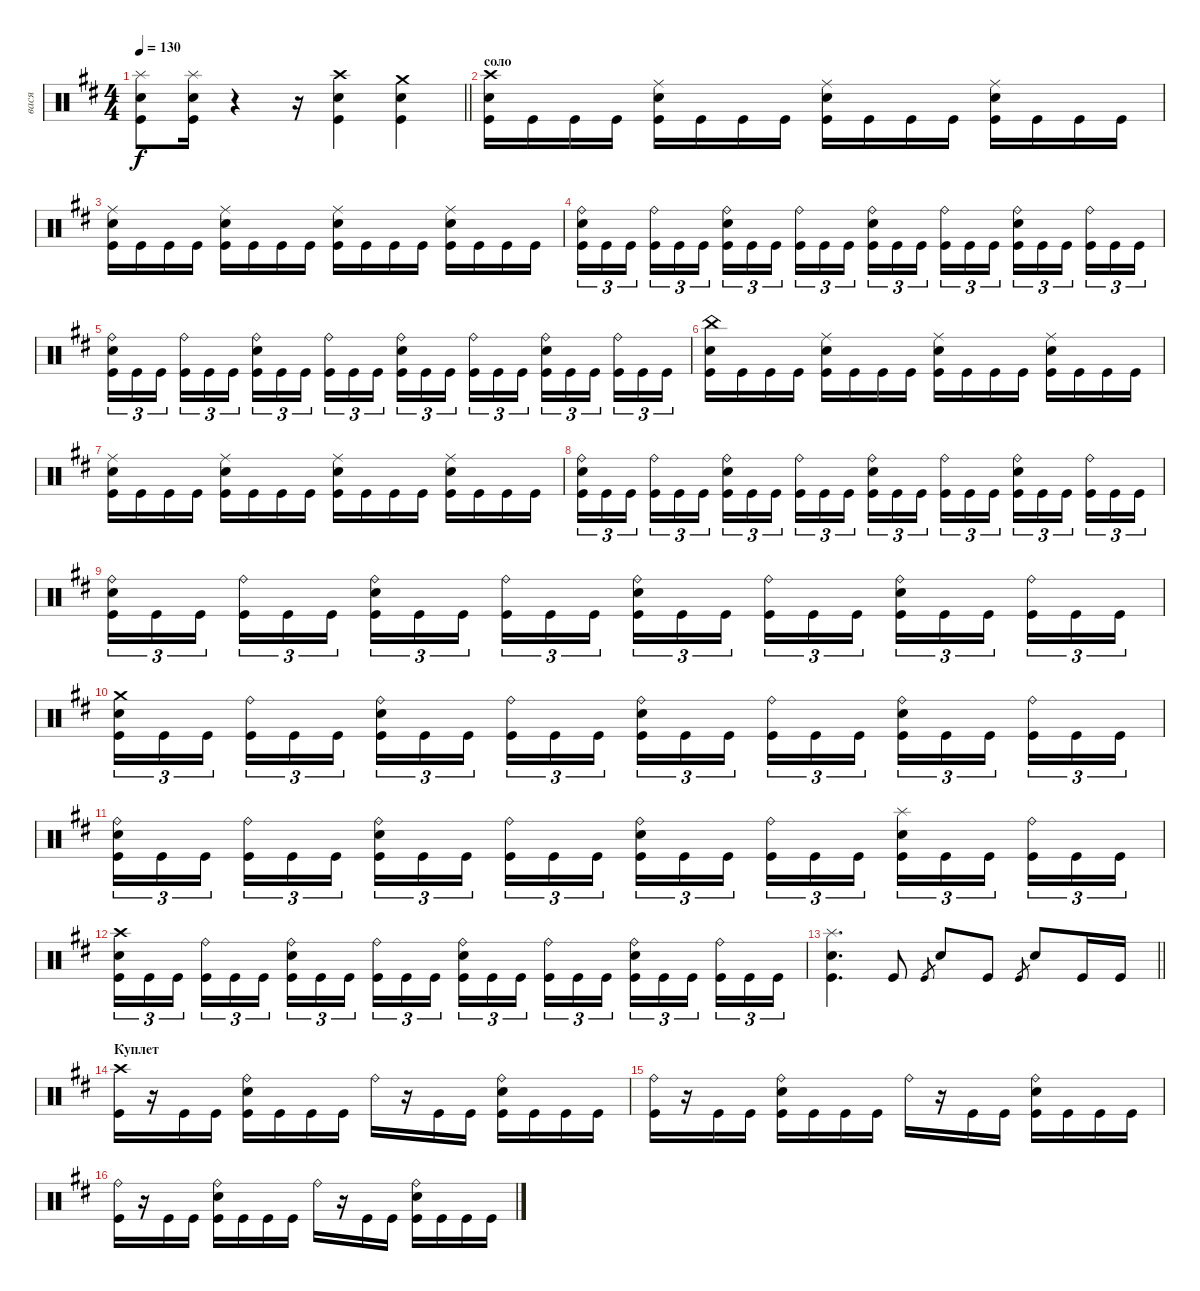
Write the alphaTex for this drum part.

\track ("вася" "вася") {instrument percussion}
\staff {score}
\articulation defaults
\ts (4 4)
\tempo 130
\clef neutral
\barLineRight lightlight
\ks bminor
("Splash (hit)" "Electric Snare (hit)" "Kick (hit)").8{dy f} ("Splash (hit)" "Electric Snare (hit)" "Kick (hit)").16 r.4 r.16 ("Crash high (hit)" "Electric Snare (hit)" "Kick (hit)").4 ("Crash medium (hit)" "Electric Snare (hit)" "Kick (hit)").4 |
\section ("" "соло")
("Crash high (hit)" "Electric Snare (hit)" "Kick (hit)").16 "Kick (hit)".16 "Kick (hit)".16 "Kick (hit)".16 ("Ride (middle)" "Electric Snare (hit)" "Kick (hit)").16 "Kick (hit)".16 "Kick (hit)".16 "Kick (hit)".16 ("Ride (middle)" "Electric Snare (hit)" "Kick (hit)").16 "Kick (hit)".16 "Kick (hit)".16 "Kick (hit)".16 ("Ride (middle)" "Electric Snare (hit)" "Kick (hit)").16 "Kick (hit)".16 "Kick (hit)".16 "Kick (hit)".16 |
("Ride (middle)" "Electric Snare (hit)" "Kick (hit)").16 "Kick (hit)".16 "Kick (hit)".16 "Kick (hit)".16 ("Ride (middle)" "Electric Snare (hit)" "Kick (hit)").16 "Kick (hit)".16 "Kick (hit)".16 "Kick (hit)".16 ("Ride (middle)" "Electric Snare (hit)" "Kick (hit)").16 "Kick (hit)".16 "Kick (hit)".16 "Kick (hit)".16 ("Ride (middle)" "Electric Snare (hit)" "Kick (hit)").16 "Kick (hit)".16 "Kick (hit)".16 "Kick (hit)".16 |
("Ride (bell)" "Electric Snare (hit)" "Kick (hit)").16{tu (3 2)} "Kick (hit)".16{tu (3 2)} "Kick (hit)".16{tu (3 2) beam splitsecondary} ("Ride (bell)" "Kick (hit)").16{tu (3 2)} "Kick (hit)".16{tu (3 2)} "Kick (hit)".16{tu (3 2)} ("Ride (bell)" "Electric Snare (hit)" "Kick (hit)").16{tu (3 2)} "Kick (hit)".16{tu (3 2)} "Kick (hit)".16{tu (3 2) beam splitsecondary} ("Ride (bell)" "Kick (hit)").16{tu (3 2)} "Kick (hit)".16{tu (3 2)} "Kick (hit)".16{tu (3 2)} ("Ride (bell)" "Electric Snare (hit)" "Kick (hit)").16{tu (3 2)} "Kick (hit)".16{tu (3 2)} "Kick (hit)".16{tu (3 2) beam splitsecondary} ("Ride (bell)" "Kick (hit)").16{tu (3 2)} "Kick (hit)".16{tu (3 2)} "Kick (hit)".16{tu (3 2)} ("Ride (bell)" "Electric Snare (hit)" "Kick (hit)").16{tu (3 2)} "Kick (hit)".16{tu (3 2)} "Kick (hit)".16{tu (3 2) beam splitsecondary} ("Ride (bell)" "Kick (hit)").16{tu (3 2)} "Kick (hit)".16{tu (3 2)} "Kick (hit)".16{tu (3 2)} |
("Ride (bell)" "Electric Snare (hit)" "Kick (hit)").16{tu (3 2)} "Kick (hit)".16{tu (3 2)} "Kick (hit)".16{tu (3 2) beam splitsecondary} ("Ride (bell)" "Kick (hit)").16{tu (3 2)} "Kick (hit)".16{tu (3 2)} "Kick (hit)".16{tu (3 2)} ("Ride (bell)" "Electric Snare (hit)" "Kick (hit)").16{tu (3 2)} "Kick (hit)".16{tu (3 2)} "Kick (hit)".16{tu (3 2) beam splitsecondary} ("Ride (bell)" "Kick (hit)").16{tu (3 2)} "Kick (hit)".16{tu (3 2)} "Kick (hit)".16{tu (3 2)} ("Ride (bell)" "Electric Snare (hit)" "Kick (hit)").16{tu (3 2)} "Kick (hit)".16{tu (3 2)} "Kick (hit)".16{tu (3 2) beam splitsecondary} ("Ride (bell)" "Kick (hit)").16{tu (3 2)} "Kick (hit)".16{tu (3 2)} "Kick (hit)".16{tu (3 2)} ("Ride (bell)" "Electric Snare (hit)" "Kick (hit)").16{tu (3 2)} "Kick (hit)".16{tu (3 2)} "Kick (hit)".16{tu (3 2) beam splitsecondary} ("Ride (bell)" "Kick (hit)").16{tu (3 2)} "Kick (hit)".16{tu (3 2)} "Kick (hit)".16{tu (3 2)} |
("China (hit)" "Electric Snare (hit)" "Kick (hit)").16 "Kick (hit)".16 "Kick (hit)".16 "Kick (hit)".16 ("Ride (middle)" "Electric Snare (hit)" "Kick (hit)").16 "Kick (hit)".16 "Kick (hit)".16 "Kick (hit)".16 ("Ride (middle)" "Electric Snare (hit)" "Kick (hit)").16 "Kick (hit)".16 "Kick (hit)".16 "Kick (hit)".16 ("Ride (middle)" "Electric Snare (hit)" "Kick (hit)").16 "Kick (hit)".16 "Kick (hit)".16 "Kick (hit)".16 |
("Ride (middle)" "Electric Snare (hit)" "Kick (hit)").16 "Kick (hit)".16 "Kick (hit)".16 "Kick (hit)".16 ("Ride (middle)" "Electric Snare (hit)" "Kick (hit)").16 "Kick (hit)".16 "Kick (hit)".16 "Kick (hit)".16 ("Ride (middle)" "Electric Snare (hit)" "Kick (hit)").16 "Kick (hit)".16 "Kick (hit)".16 "Kick (hit)".16 ("Ride (middle)" "Electric Snare (hit)" "Kick (hit)").16 "Kick (hit)".16 "Kick (hit)".16 "Kick (hit)".16 |
("Ride (bell)" "Electric Snare (hit)" "Kick (hit)").16{tu (3 2)} "Kick (hit)".16{tu (3 2)} "Kick (hit)".16{tu (3 2) beam splitsecondary} ("Ride (bell)" "Kick (hit)").16{tu (3 2)} "Kick (hit)".16{tu (3 2)} "Kick (hit)".16{tu (3 2)} ("Ride (bell)" "Electric Snare (hit)" "Kick (hit)").16{tu (3 2)} "Kick (hit)".16{tu (3 2)} "Kick (hit)".16{tu (3 2) beam splitsecondary} ("Ride (bell)" "Kick (hit)").16{tu (3 2)} "Kick (hit)".16{tu (3 2)} "Kick (hit)".16{tu (3 2)} ("Ride (bell)" "Electric Snare (hit)" "Kick (hit)").16{tu (3 2)} "Kick (hit)".16{tu (3 2)} "Kick (hit)".16{tu (3 2) beam splitsecondary} ("Ride (bell)" "Kick (hit)").16{tu (3 2)} "Kick (hit)".16{tu (3 2)} "Kick (hit)".16{tu (3 2)} ("Ride (bell)" "Electric Snare (hit)" "Kick (hit)").16{tu (3 2)} "Kick (hit)".16{tu (3 2)} "Kick (hit)".16{tu (3 2) beam splitsecondary} ("Ride (bell)" "Kick (hit)").16{tu (3 2)} "Kick (hit)".16{tu (3 2)} "Kick (hit)".16{tu (3 2)} |
("Ride (bell)" "Electric Snare (hit)" "Kick (hit)").16{tu (3 2)} "Kick (hit)".16{tu (3 2)} "Kick (hit)".16{tu (3 2) beam splitsecondary} ("Ride (bell)" "Kick (hit)").16{tu (3 2)} "Kick (hit)".16{tu (3 2)} "Kick (hit)".16{tu (3 2)} ("Ride (bell)" "Electric Snare (hit)" "Kick (hit)").16{tu (3 2)} "Kick (hit)".16{tu (3 2)} "Kick (hit)".16{tu (3 2) beam splitsecondary} ("Ride (bell)" "Kick (hit)").16{tu (3 2)} "Kick (hit)".16{tu (3 2)} "Kick (hit)".16{tu (3 2)} ("Ride (bell)" "Electric Snare (hit)" "Kick (hit)").16{tu (3 2)} "Kick (hit)".16{tu (3 2)} "Kick (hit)".16{tu (3 2) beam splitsecondary} ("Ride (bell)" "Kick (hit)").16{tu (3 2)} "Kick (hit)".16{tu (3 2)} "Kick (hit)".16{tu (3 2)} ("Ride (bell)" "Electric Snare (hit)" "Kick (hit)").16{tu (3 2)} "Kick (hit)".16{tu (3 2)} "Kick (hit)".16{tu (3 2) beam splitsecondary} ("Ride (bell)" "Kick (hit)").16{tu (3 2)} "Kick (hit)".16{tu (3 2)} "Kick (hit)".16{tu (3 2)} |
("Crash medium (hit)" "Electric Snare (hit)" "Kick (hit)").16{tu (3 2)} "Kick (hit)".16{tu (3 2)} "Kick (hit)".16{tu (3 2) beam splitsecondary} ("Ride (bell)" "Kick (hit)").16{tu (3 2)} "Kick (hit)".16{tu (3 2)} "Kick (hit)".16{tu (3 2)} ("Ride (bell)" "Electric Snare (hit)" "Kick (hit)").16{tu (3 2)} "Kick (hit)".16{tu (3 2)} "Kick (hit)".16{tu (3 2) beam splitsecondary} ("Ride (bell)" "Kick (hit)").16{tu (3 2)} "Kick (hit)".16{tu (3 2)} "Kick (hit)".16{tu (3 2)} ("Ride (bell)" "Electric Snare (hit)" "Kick (hit)").16{tu (3 2)} "Kick (hit)".16{tu (3 2)} "Kick (hit)".16{tu (3 2) beam splitsecondary} ("Ride (bell)" "Kick (hit)").16{tu (3 2)} "Kick (hit)".16{tu (3 2)} "Kick (hit)".16{tu (3 2)} ("Ride (bell)" "Electric Snare (hit)" "Kick (hit)").16{tu (3 2)} "Kick (hit)".16{tu (3 2)} "Kick (hit)".16{tu (3 2) beam splitsecondary} ("Ride (bell)" "Kick (hit)").16{tu (3 2)} "Kick (hit)".16{tu (3 2)} "Kick (hit)".16{tu (3 2)} |
("Ride (bell)" "Electric Snare (hit)" "Kick (hit)").16{tu (3 2)} "Kick (hit)".16{tu (3 2)} "Kick (hit)".16{tu (3 2) beam splitsecondary} ("Ride (bell)" "Kick (hit)").16{tu (3 2)} "Kick (hit)".16{tu (3 2)} "Kick (hit)".16{tu (3 2)} ("Ride (bell)" "Electric Snare (hit)" "Kick (hit)").16{tu (3 2)} "Kick (hit)".16{tu (3 2)} "Kick (hit)".16{tu (3 2) beam splitsecondary} ("Ride (bell)" "Kick (hit)").16{tu (3 2)} "Kick (hit)".16{tu (3 2)} "Kick (hit)".16{tu (3 2)} ("Ride (bell)" "Electric Snare (hit)" "Kick (hit)").16{tu (3 2)} "Kick (hit)".16{tu (3 2)} "Kick (hit)".16{tu (3 2) beam splitsecondary} ("Ride (bell)" "Kick (hit)").16{tu (3 2)} "Kick (hit)".16{tu (3 2)} "Kick (hit)".16{tu (3 2)} ("Splash (hit)" "Electric Snare (hit)" "Kick (hit)").16{tu (3 2)} "Kick (hit)".16{tu (3 2)} "Kick (hit)".16{tu (3 2) beam splitsecondary} ("Ride (bell)" "Kick (hit)").16{tu (3 2)} "Kick (hit)".16{tu (3 2)} "Kick (hit)".16{tu (3 2)} |
("Crash high (hit)" "Electric Snare (hit)" "Kick (hit)").16{tu (3 2)} "Kick (hit)".16{tu (3 2)} "Kick (hit)".16{tu (3 2) beam splitsecondary} ("Ride (bell)" "Kick (hit)").16{tu (3 2)} "Kick (hit)".16{tu (3 2)} "Kick (hit)".16{tu (3 2)} ("Ride (bell)" "Electric Snare (hit)" "Kick (hit)").16{tu (3 2)} "Kick (hit)".16{tu (3 2)} "Kick (hit)".16{tu (3 2) beam splitsecondary} ("Ride (bell)" "Kick (hit)").16{tu (3 2)} "Kick (hit)".16{tu (3 2)} "Kick (hit)".16{tu (3 2)} ("Ride (bell)" "Electric Snare (hit)" "Kick (hit)").16{tu (3 2)} "Kick (hit)".16{tu (3 2)} "Kick (hit)".16{tu (3 2) beam splitsecondary} ("Ride (bell)" "Kick (hit)").16{tu (3 2)} "Kick (hit)".16{tu (3 2)} "Kick (hit)".16{tu (3 2)} ("Ride (bell)" "Electric Snare (hit)" "Kick (hit)").16{tu (3 2)} "Kick (hit)".16{tu (3 2)} "Kick (hit)".16{tu (3 2) beam splitsecondary} ("Ride (bell)" "Kick (hit)").16{tu (3 2)} "Kick (hit)".16{tu (3 2)} "Kick (hit)".16{tu (3 2)} |
\barLineRight lightlight
("Splash (hit)" "Electric Snare (hit)" "Kick (hit)").4{d} "Kick (hit)".8 "Kick (hit)".8{gr} "Electric Snare (hit)".8 "Kick (hit)".8 "Kick (hit)".8{gr} "Electric Snare (hit)".8 "Kick (hit)".16 "Kick (hit)".16 |
\section ("" "Куплет")
("Crash high (hit)" "Kick (hit)").16 r.16 "Kick (hit)".16 "Kick (hit)".16 ("Ride (bell)" "Electric Snare (hit)" "Kick (hit)").16 "Kick (hit)".16 "Kick (hit)".16 "Kick (hit)".16 "Ride (bell)".16 r.16 "Kick (hit)".16 "Kick (hit)".16 ("Ride (bell)" "Electric Snare (hit)" "Kick (hit)").16 "Kick (hit)".16 "Kick (hit)".16 "Kick (hit)".16 |
("Ride (bell)" "Kick (hit)").16 r.16 "Kick (hit)".16 "Kick (hit)".16 ("Ride (bell)" "Electric Snare (hit)" "Kick (hit)").16 "Kick (hit)".16 "Kick (hit)".16 "Kick (hit)".16 "Ride (bell)".16 r.16 "Kick (hit)".16 "Kick (hit)".16 ("Ride (bell)" "Electric Snare (hit)" "Kick (hit)").16 "Kick (hit)".16 "Kick (hit)".16 "Kick (hit)".16 |
("Ride (bell)" "Kick (hit)").16 r.16 "Kick (hit)".16 "Kick (hit)".16 ("Ride (bell)" "Electric Snare (hit)" "Kick (hit)").16 "Kick (hit)".16 "Kick (hit)".16 "Kick (hit)".16 "Ride (bell)".16 r.16 "Kick (hit)".16 "Kick (hit)".16 ("Ride (bell)" "Electric Snare (hit)" "Kick (hit)").16 "Kick (hit)".16 "Kick (hit)".16 "Kick (hit)".16
